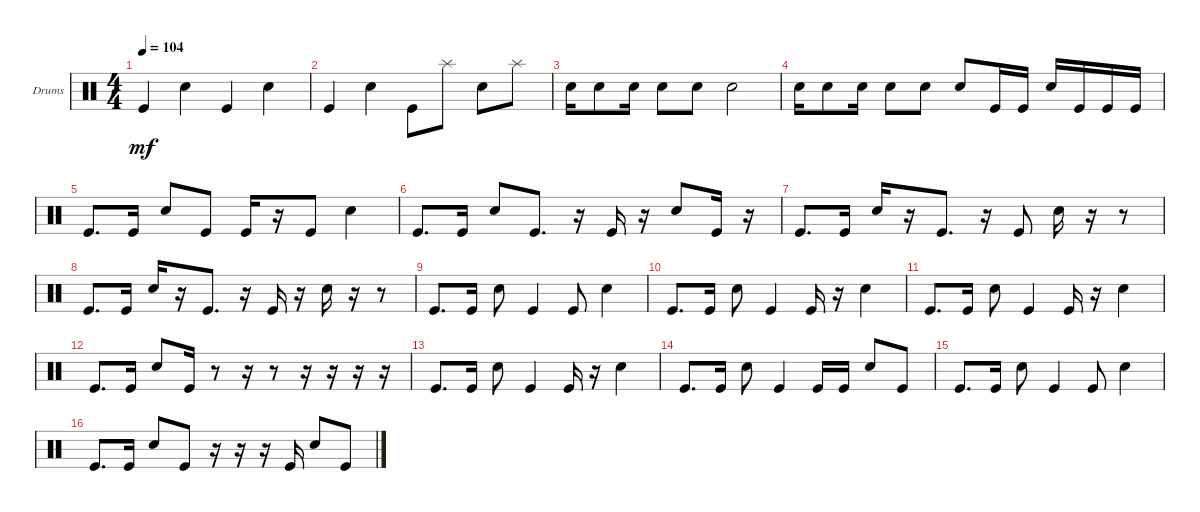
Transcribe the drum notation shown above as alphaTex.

\bracketExtendMode groupsimilarinstruments
\firstSystemTrackNameOrientation horizontal
\otherSystemsTrackNameOrientation horizontal
\track ("Drums" "Drums") {instrument percussion}
\staff {score}
\articulation defaults
\ts (4 4)
\tempo 104
\clef neutral
\ks c "Kick (hit)".4{dy mf} "Snare (hit) 2".4 "Kick (hit)".4 "Snare (hit) 2".4
|
"Kick (hit)".4 "Snare (hit) 2".4 "Kick (hit)".8 "Splash (hit)".8 "Snare (hit) 2".8 "Splash (hit)".8 |
"Snare (hit) 2".16 "Snare (hit) 2".8 "Snare (hit) 2".16 "Snare (hit) 2".8 "Snare (hit) 2".8 "Snare (hit) 2".2 |
"Snare (hit) 2".16 "Snare (hit) 2".8 "Snare (hit) 2".16 "Snare (hit) 2".8 "Snare (hit) 2".8 "Snare (hit) 2".8 "Kick (hit)".16 "Kick (hit)".16 "Snare (hit) 2".16 "Kick (hit)".16 "Kick (hit)".16 "Kick (hit)".16 |
"Kick (hit)".8{d} "Kick (hit)".16 "Snare (hit) 2".8 "Kick (hit)".8 "Kick (hit)".16 r.16 "Kick (hit)".8 "Snare (hit) 2".4 |
"Kick (hit)".8{d} "Kick (hit)".16 "Snare (hit) 2".8 "Kick (hit)".8{d} r.16 "Kick (hit)".16 r.16 "Snare (hit) 2".8 "Kick (hit)".16 r.16 |
"Kick (hit)".8{d} "Kick (hit)".16 "Snare (hit) 2".16 r.16 "Kick (hit)".8{d} r.16 "Kick (hit)".8 "Snare (hit) 2".16 r.16 r.8 |
"Kick (hit)".8{d} "Kick (hit)".16 "Snare (hit) 2".16 r.16 "Kick (hit)".8{d} r.16 "Kick (hit)".16 r.16 "Snare (hit) 2".16 r.16 r.8 |
"Kick (hit)".8{d} "Kick (hit)".16 "Snare (hit) 2".8 "Kick (hit)".4 "Kick (hit)".8 "Snare (hit) 2".4 |
"Kick (hit)".8{d} "Kick (hit)".16 "Snare (hit) 2".8 "Kick (hit)".4 "Kick (hit)".16 r.16 "Snare (hit) 2".4 |
"Kick (hit)".8{d} "Kick (hit)".16 "Snare (hit) 2".8 "Kick (hit)".4 "Kick (hit)".16 r.16 "Snare (hit) 2".4 |
"Kick (hit)".8{d} "Kick (hit)".16 "Snare (hit) 2".8 "Kick (hit)".16 r.8 r.16 r.8 r.16 r.16 r.16 r.16 |
"Kick (hit)".8{d} "Kick (hit)".16 "Snare (hit) 2".8 "Kick (hit)".4 "Kick (hit)".16 r.16 "Snare (hit) 2".4 |
"Kick (hit)".8{d} "Kick (hit)".16 "Snare (hit) 2".8 "Kick (hit)".4 "Kick (hit)".16 "Kick (hit)".16 "Snare (hit) 2".8 "Kick (hit)".8 |
"Kick (hit)".8{d} "Kick (hit)".16 "Snare (hit) 2".8 "Kick (hit)".4 "Kick (hit)".8 "Snare (hit) 2".4 |
"Kick (hit)".8{d} "Kick (hit)".16 "Snare (hit) 2".8 "Kick (hit)".8 r.16 r.16 r.16 "Kick (hit)".16 "Snare (hit) 2".8 "Kick (hit)".8
